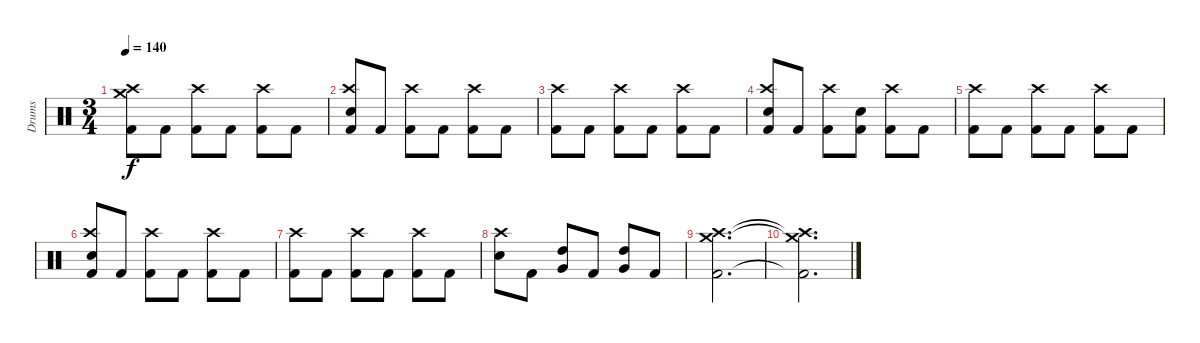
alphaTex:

\track ("Drums" "Drums") {instrument percussion}
\staff {score}
\articulation defaults
\ts (3 4)
\tempo 140
\clef neutral
\ks c
("Kick (hit) 2" "Crash high (hit)" "Crash medium (hit)").8{dy f} "Kick (hit) 2".8 ("Kick (hit) 2" "Crash high (hit)").8 "Kick (hit) 2".8 ("Kick (hit) 2" "Crash high (hit)").8 "Kick (hit) 2".8 |
("Kick (hit) 2" "Electric Snare (hit)" "Crash high (hit)").8 "Kick (hit) 2".8 ("Kick (hit) 2" "Crash high (hit)").8 "Kick (hit) 2".8 ("Kick (hit) 2" "Crash high (hit)").8 "Kick (hit) 2".8 |
("Kick (hit) 2" "Crash high (hit)").8 "Kick (hit) 2".8 ("Kick (hit) 2" "Crash high (hit)").8 "Kick (hit) 2".8 ("Kick (hit) 2" "Crash high (hit)").8 "Kick (hit) 2".8 |
("Kick (hit) 2" "Electric Snare (hit)" "Crash high (hit)").8 "Kick (hit) 2".8 ("Kick (hit) 2" "Crash high (hit)").8 ("Kick (hit) 2" "Electric Snare (hit)").8 ("Kick (hit) 2" "Crash high (hit)").8 "Kick (hit) 2".8 |
("Kick (hit) 2" "Crash high (hit)").8 "Kick (hit) 2".8 ("Kick (hit) 2" "Crash high (hit)").8 "Kick (hit) 2".8 ("Kick (hit) 2" "Crash high (hit)").8 "Kick (hit) 2".8 |
("Kick (hit) 2" "Electric Snare (hit)" "Crash high (hit)").8 "Kick (hit) 2".8 ("Kick (hit) 2" "Crash high (hit)").8 "Kick (hit) 2".8 ("Kick (hit) 2" "Crash high (hit)").8 "Kick (hit) 2".8 |
("Kick (hit) 2" "Crash high (hit)").8 "Kick (hit) 2".8 ("Kick (hit) 2" "Crash high (hit)").8 "Kick (hit) 2".8 ("Kick (hit) 2" "Crash high (hit)").8 "Kick (hit) 2".8 |
("Electric Snare (hit)" "Crash high (hit)").8 "Kick (hit) 2".8 ("Very Low Tom (hit)" "High Tom (hit)").8 "Kick (hit) 2".8 ("Very Low Tom (hit)" "High Tom (hit)").8 "Kick (hit) 2".8 |
("Kick (hit) 2" "Crash high (hit)" "Crash medium (hit)").2{d} |
("Kick (hit) 2"{t} "Crash high (hit)"{t} "Crash medium (hit)"{t}).2{d}
